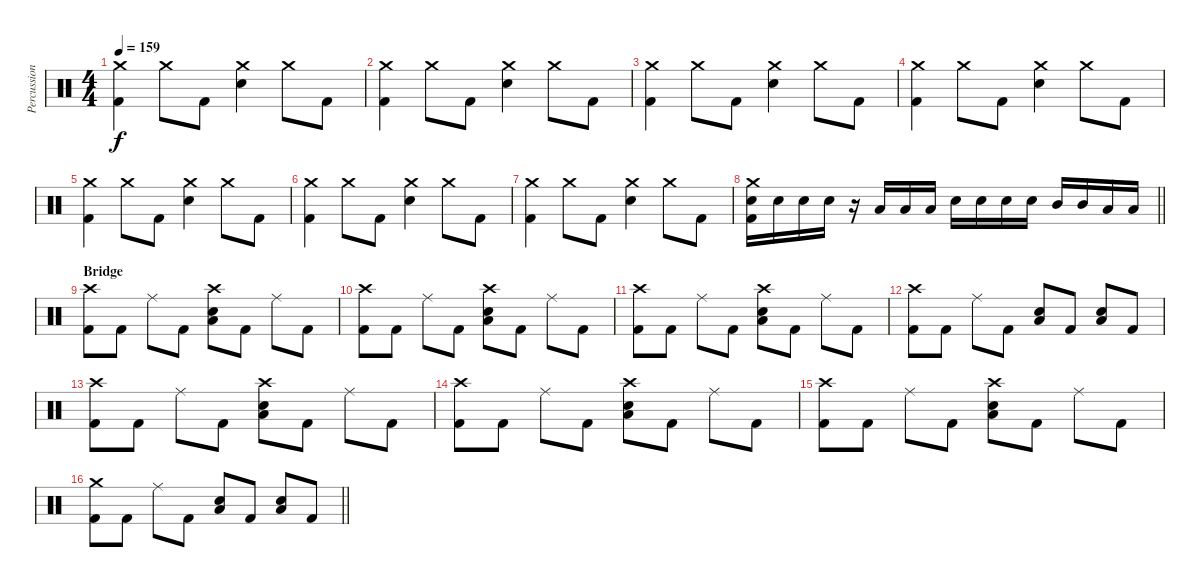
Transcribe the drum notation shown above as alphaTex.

\track ("Percussion" "Percussion") {instrument percussion}
\staff {score}
\articulation defaults
\ts (4 4)
\tempo 159
\clef neutral
\ks c
("Crash medium (hit)" "Kick (hit) 2").4{dy f} "Crash medium (hit)".8 "Kick (hit) 2".8 ("Crash medium (hit)" "Electric Snare (hit)").4 "Crash medium (hit)".8 "Kick (hit) 2".8 |
("Crash medium (hit)" "Kick (hit) 2").4 "Crash medium (hit)".8 "Kick (hit) 2".8 ("Crash medium (hit)" "Electric Snare (hit)").4 "Crash medium (hit)".8 "Kick (hit) 2".8 |
("Crash medium (hit)" "Kick (hit) 2").4 "Crash medium (hit)".8 "Kick (hit) 2".8 ("Crash medium (hit)" "Electric Snare (hit)").4 "Crash medium (hit)".8 "Kick (hit) 2".8 |
("Crash medium (hit)" "Kick (hit) 2").4 "Crash medium (hit)".8 "Kick (hit) 2".8 ("Crash medium (hit)" "Electric Snare (hit)").4 "Crash medium (hit)".8 "Kick (hit) 2".8 |
("Crash medium (hit)" "Kick (hit) 2").4 "Crash medium (hit)".8 "Kick (hit) 2".8 ("Crash medium (hit)" "Electric Snare (hit)").4 "Crash medium (hit)".8 "Kick (hit) 2".8 |
("Crash medium (hit)" "Kick (hit) 2").4 "Crash medium (hit)".8 "Kick (hit) 2".8 ("Crash medium (hit)" "Electric Snare (hit)").4 "Crash medium (hit)".8 "Kick (hit) 2".8 |
("Crash medium (hit)" "Kick (hit) 2").4 "Crash medium (hit)".8 "Kick (hit) 2".8 ("Crash medium (hit)" "Electric Snare (hit)").4 "Crash medium (hit)".8 "Kick (hit) 2".8 |
\barLineRight lightlight
("Crash medium (hit)" "Electric Snare (hit)" "Kick (hit) 2").16 "Electric Snare (hit)".16 "Electric Snare (hit)".16 "Electric Snare (hit)".16 r.16 "Low Tom (hit)".16 "Low Tom (hit)".16 "Low Tom (hit)".16 "Electric Snare (hit)".16 "Electric Snare (hit)".16 "Electric Snare (hit)".16 "Electric Snare (hit)".16 "Mid Tom (hit)".16 "Mid Tom (hit)".16 "Low Tom (hit)".16 "Low Tom (hit)".16 |
\section ("" "Bridge")
("Crash high (hit)" "Kick (hit) 2").8 "Kick (hit) 2".8 "Ride (middle)".8 "Kick (hit) 2".8 ("Crash high (hit)" "Low Tom (hit)" "Electric Snare (hit)").8 "Kick (hit) 2".8 "Ride (middle)".8 "Kick (hit) 2".8 |
("Crash high (hit)" "Kick (hit) 2").8 "Kick (hit) 2".8 "Ride (middle)".8 "Kick (hit) 2".8 ("Crash high (hit)" "Low Tom (hit)" "Electric Snare (hit)").8 "Kick (hit) 2".8 "Ride (middle)".8 "Kick (hit) 2".8 |
("Crash high (hit)" "Kick (hit) 2").8 "Kick (hit) 2".8 "Ride (middle)".8 "Kick (hit) 2".8 ("Crash high (hit)" "Low Tom (hit)" "Electric Snare (hit)").8 "Kick (hit) 2".8 "Ride (middle)".8 "Kick (hit) 2".8 |
("Crash high (hit)" "Kick (hit) 2").8 "Kick (hit) 2".8 "Ride (middle)".8 "Kick (hit) 2".8 ("Low Tom (hit)" "Electric Snare (hit)").8 "Kick (hit) 2".8 ("Low Tom (hit)" "Electric Snare (hit)").8 "Kick (hit) 2".8 |
("Crash high (hit)" "Kick (hit) 2").8 "Kick (hit) 2".8 "Ride (middle)".8 "Kick (hit) 2".8 ("Crash high (hit)" "Low Tom (hit)" "Electric Snare (hit)").8 "Kick (hit) 2".8 "Ride (middle)".8 "Kick (hit) 2".8 |
("Crash high (hit)" "Kick (hit) 2").8 "Kick (hit) 2".8 "Ride (middle)".8 "Kick (hit) 2".8 ("Crash high (hit)" "Low Tom (hit)" "Electric Snare (hit)").8 "Kick (hit) 2".8 "Ride (middle)".8 "Kick (hit) 2".8 |
("Crash high (hit)" "Kick (hit) 2").8 "Kick (hit) 2".8 "Ride (middle)".8 "Kick (hit) 2".8 ("Crash high (hit)" "Low Tom (hit)" "Electric Snare (hit)").8 "Kick (hit) 2".8 "Ride (middle)".8 "Kick (hit) 2".8 |
\barLineRight lightlight
("Crash medium (hit)" "Kick (hit) 2").8 "Kick (hit) 2".8 "Ride (middle)".8 "Kick (hit) 2".8 ("Low Tom (hit)" "Electric Snare (hit)").8 "Kick (hit) 2".8 ("Low Tom (hit)" "Electric Snare (hit)").8 "Kick (hit) 2".8
